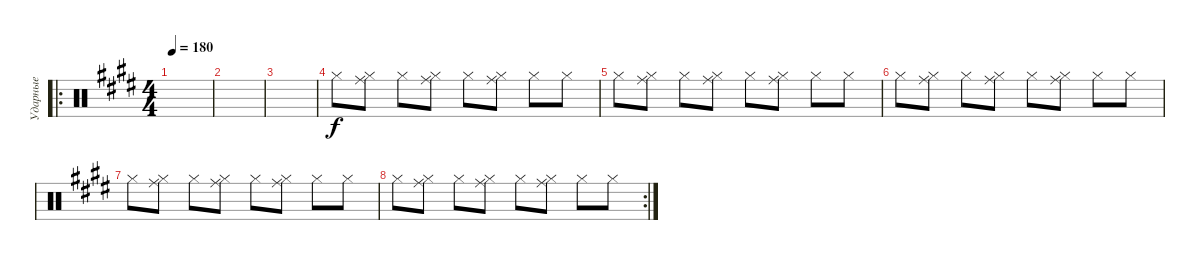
\track ("Ударные" "Ударные") {instrument percussion}
\staff {score}
\articulation defaults
\ro
\ts (4 4)
\tempo 180
\clef neutral
\ks e
|
|
|
"Hi-Hat (closed)".8 ("Hi-Hat (closed)" "Ride (middle)").8 "Hi-Hat (closed)".8 ("Hi-Hat (closed)" "Ride (middle)").8 "Hi-Hat (closed)".8 ("Hi-Hat (closed)" "Ride (middle)").8 "Hi-Hat (closed)".8 "Hi-Hat (closed)".8 |
"Hi-Hat (closed)".8 ("Hi-Hat (closed)" "Ride (middle)").8 "Hi-Hat (closed)".8 ("Hi-Hat (closed)" "Ride (middle)").8 "Hi-Hat (closed)".8 ("Hi-Hat (closed)" "Ride (middle)").8 "Hi-Hat (closed)".8 "Hi-Hat (closed)".8 |
"Hi-Hat (closed)".8 ("Hi-Hat (closed)" "Ride (middle)").8 "Hi-Hat (closed)".8 ("Hi-Hat (closed)" "Ride (middle)").8 "Hi-Hat (closed)".8 ("Hi-Hat (closed)" "Ride (middle)").8 "Hi-Hat (closed)".8 "Hi-Hat (closed)".8 |
"Hi-Hat (closed)".8 ("Hi-Hat (closed)" "Ride (middle)").8 "Hi-Hat (closed)".8 ("Hi-Hat (closed)" "Ride (middle)").8 "Hi-Hat (closed)".8 ("Hi-Hat (closed)" "Ride (middle)").8 "Hi-Hat (closed)".8 "Hi-Hat (closed)".8 |
\rc 2 "Hi-Hat (closed)".8
("Hi-Hat (closed)" "Ride (middle)").8 "Hi-Hat (closed)".8 ("Hi-Hat (closed)" "Ride (middle)").8 "Hi-Hat (closed)".8 ("Hi-Hat (closed)" "Ride (middle)").8 "Hi-Hat (closed)".8 "Hi-Hat (closed)".8
